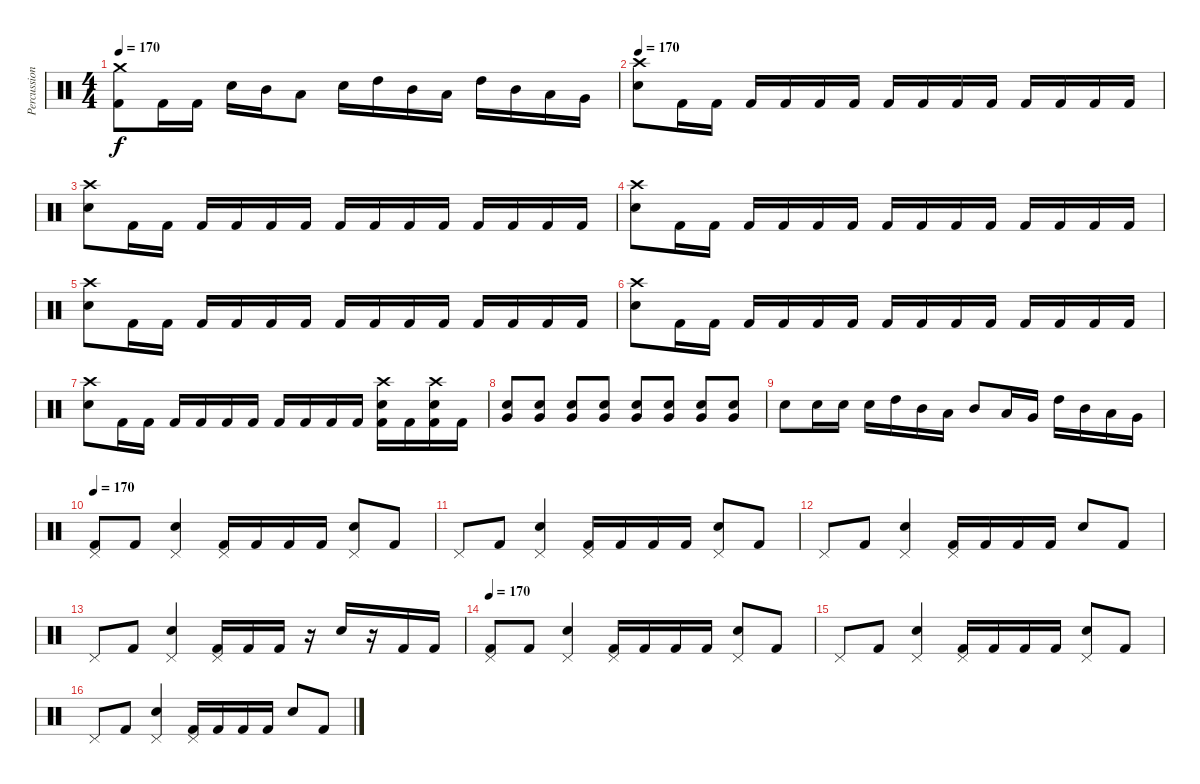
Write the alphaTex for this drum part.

\track ("Percussion" "Percussion") {instrument percussion}
\staff {score}
\articulation defaults
\ts (4 4)
\tempo 170
\clef neutral
\ks c
("Crash medium (hit)" "Kick (hit) 2").8{dy f} "Kick (hit) 2".16 "Kick (hit) 2".16 "Electric Snare (hit)".16 "Mid Tom (hit)".16 "Low Tom (hit)".8 "Electric Snare (hit)".16 "High Tom (hit)".16 "Mid Tom (hit)".16 "Low Tom (hit)".16 "High Tom (hit)".16 "Mid Tom (hit)".16 "Low Tom (hit)".16 "Very Low Tom (hit)".16 |
\tempo 170
("Crash high (hit)" "Electric Snare (hit)").8 "Kick (hit) 2".16 "Kick (hit) 2".16 "Kick (hit) 2".16 "Kick (hit) 2".16 "Kick (hit) 2".16 "Kick (hit) 2".16 "Kick (hit) 2".16 "Kick (hit) 2".16 "Kick (hit) 2".16 "Kick (hit) 2".16 "Kick (hit) 2".16 "Kick (hit) 2".16 "Kick (hit) 2".16 "Kick (hit) 2".16 |
("Crash high (hit)" "Electric Snare (hit)").8 "Kick (hit) 2".16 "Kick (hit) 2".16 "Kick (hit) 2".16 "Kick (hit) 2".16 "Kick (hit) 2".16 "Kick (hit) 2".16 "Kick (hit) 2".16 "Kick (hit) 2".16 "Kick (hit) 2".16 "Kick (hit) 2".16 "Kick (hit) 2".16 "Kick (hit) 2".16 "Kick (hit) 2".16 "Kick (hit) 2".16 |
("Crash high (hit)" "Electric Snare (hit)").8 "Kick (hit) 2".16 "Kick (hit) 2".16 "Kick (hit) 2".16 "Kick (hit) 2".16 "Kick (hit) 2".16 "Kick (hit) 2".16 "Kick (hit) 2".16 "Kick (hit) 2".16 "Kick (hit) 2".16 "Kick (hit) 2".16 "Kick (hit) 2".16 "Kick (hit) 2".16 "Kick (hit) 2".16 "Kick (hit) 2".16 |
("Crash high (hit)" "Electric Snare (hit)").8 "Kick (hit) 2".16 "Kick (hit) 2".16 "Kick (hit) 2".16 "Kick (hit) 2".16 "Kick (hit) 2".16 "Kick (hit) 2".16 "Kick (hit) 2".16 "Kick (hit) 2".16 "Kick (hit) 2".16 "Kick (hit) 2".16 "Kick (hit) 2".16 "Kick (hit) 2".16 "Kick (hit) 2".16 "Kick (hit) 2".16 |
("Crash high (hit)" "Electric Snare (hit)").8 "Kick (hit) 2".16 "Kick (hit) 2".16 "Kick (hit) 2".16 "Kick (hit) 2".16 "Kick (hit) 2".16 "Kick (hit) 2".16 "Kick (hit) 2".16 "Kick (hit) 2".16 "Kick (hit) 2".16 "Kick (hit) 2".16 "Kick (hit) 2".16 "Kick (hit) 2".16 "Kick (hit) 2".16 "Kick (hit) 2".16 |
("Crash high (hit)" "Electric Snare (hit)").8 "Kick (hit) 2".16 "Kick (hit) 2".16 "Kick (hit) 2".16 "Kick (hit) 2".16 "Kick (hit) 2".16 "Kick (hit) 2".16 "Kick (hit) 2".16 "Kick (hit) 2".16 "Kick (hit) 2".16 "Kick (hit) 2".16 ("Crash high (hit)" "Electric Snare (hit)" "Kick (hit) 2").16 "Kick (hit) 2".16 ("Crash high (hit)" "Electric Snare (hit)" "Kick (hit) 2").16 "Kick (hit) 2".16 |
("Very Low Tom (hit)" "Electric Snare (hit)").8 ("Very Low Tom (hit)" "Electric Snare (hit)").8 ("Very Low Tom (hit)" "Electric Snare (hit)").8 ("Very Low Tom (hit)" "Electric Snare (hit)").8 ("Very Low Tom (hit)" "Electric Snare (hit)").8 ("Very Low Tom (hit)" "Electric Snare (hit)").8 ("Very Low Tom (hit)" "Electric Snare (hit)").8 ("Very Low Tom (hit)" "Electric Snare (hit)").8 |
"Electric Snare (hit)".8 "Electric Snare (hit)".16 "Electric Snare (hit)".16 "Electric Snare (hit)".16 "High Tom (hit)".16 "Mid Tom (hit)".16 "Low Tom (hit)".16 "Mid Tom (hit)".8 "Low Tom (hit)".16 "Very Low Tom (hit)".16 "High Tom (hit)".16 "Mid Tom (hit)".16 "Low Tom (hit)".16 "Very Low Tom (hit)".16 |
\tempo 170
("Pedal Hi-Hat (hit)" "Kick (hit) 2").8 "Kick (hit) 2".8 ("Pedal Hi-Hat (hit)" "Electric Snare (hit)").4 ("Pedal Hi-Hat (hit)" "Kick (hit) 2").16 "Kick (hit) 2".16 "Kick (hit) 2".16 "Kick (hit) 2".16 ("Pedal Hi-Hat (hit)" "Electric Snare (hit)").8 "Kick (hit) 2".8 |
"Pedal Hi-Hat (hit)".8 "Kick (hit) 2".8 ("Pedal Hi-Hat (hit)" "Electric Snare (hit)").4 ("Pedal Hi-Hat (hit)" "Kick (hit) 2").16 "Kick (hit) 2".16 "Kick (hit) 2".16 "Kick (hit) 2".16 ("Pedal Hi-Hat (hit)" "Electric Snare (hit)").8 "Kick (hit) 2".8 |
"Pedal Hi-Hat (hit)".8 "Kick (hit) 2".8 ("Pedal Hi-Hat (hit)" "Electric Snare (hit)").4 ("Pedal Hi-Hat (hit)" "Kick (hit) 2").16 "Kick (hit) 2".16 "Kick (hit) 2".16 "Kick (hit) 2".16 "Electric Snare (hit)".8 "Kick (hit) 2".8 |
"Pedal Hi-Hat (hit)".8 "Kick (hit) 2".8 ("Pedal Hi-Hat (hit)" "Electric Snare (hit)").4 ("Pedal Hi-Hat (hit)" "Kick (hit) 2").16 "Kick (hit) 2".16 "Kick (hit) 2".16 r.16 "Electric Snare (hit)".16 r.16 "Kick (hit) 2".16 "Kick (hit) 2".16 |
\tempo 170
("Pedal Hi-Hat (hit)" "Kick (hit) 2").8 "Kick (hit) 2".8 ("Pedal Hi-Hat (hit)" "Electric Snare (hit)").4 ("Pedal Hi-Hat (hit)" "Kick (hit) 2").16 "Kick (hit) 2".16 "Kick (hit) 2".16 "Kick (hit) 2".16 ("Pedal Hi-Hat (hit)" "Electric Snare (hit)").8 "Kick (hit) 2".8 |
"Pedal Hi-Hat (hit)".8 "Kick (hit) 2".8 ("Pedal Hi-Hat (hit)" "Electric Snare (hit)").4 ("Pedal Hi-Hat (hit)" "Kick (hit) 2").16 "Kick (hit) 2".16 "Kick (hit) 2".16 "Kick (hit) 2".16 ("Pedal Hi-Hat (hit)" "Electric Snare (hit)").8 "Kick (hit) 2".8 |
"Pedal Hi-Hat (hit)".8 "Kick (hit) 2".8 ("Pedal Hi-Hat (hit)" "Electric Snare (hit)").4 ("Pedal Hi-Hat (hit)" "Kick (hit) 2").16 "Kick (hit) 2".16 "Kick (hit) 2".16 "Kick (hit) 2".16 "Electric Snare (hit)".8 "Kick (hit) 2".8
